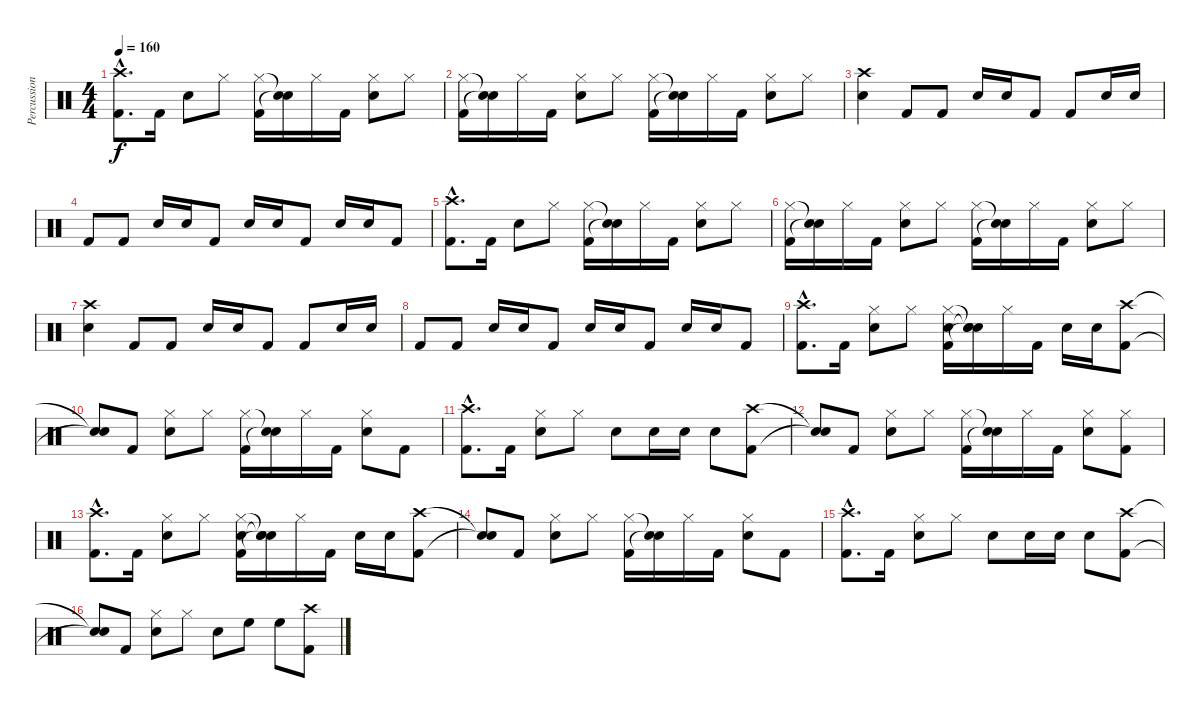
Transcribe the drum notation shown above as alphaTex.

\track ("Percussion" "Percussion") {instrument percussion}
\staff {score}
\articulation defaults
\ts (4 4)
\tempo 160
\clef neutral
\ks c
("Crash high (hit)"{hac} "Kick (hit) 2"{hac}).8{d dy f} "Kick (hit) 2".16 "Snare (hit) 2".8 "Hi-Hat (closed)".8 ("Hi-Hat (closed)" "Kick (hit) 2").16 ("Snare (hit)"{t} "Snare (hit)"{t}).16 "Hi-Hat (closed)".16 "Kick (hit) 2".16 ("Hi-Hat (closed)" "Snare (hit) 2").8 "Hi-Hat (closed)".8 |
("Hi-Hat (closed)" "Kick (hit) 2").16 ("Snare (hit)"{t} "Snare (hit)"{t}).16 "Hi-Hat (closed)".16 "Kick (hit) 2".16 ("Hi-Hat (closed)" "Snare (hit) 2").8 "Hi-Hat (closed)".8 ("Hi-Hat (closed)" "Kick (hit) 2").16 ("Snare (hit)"{t} "Snare (hit)"{t}).16 "Hi-Hat (closed)".16 "Kick (hit) 2".16 ("Hi-Hat (closed)" "Snare (hit) 2").8 "Hi-Hat (closed)".8 |
("Crash high (hit)" "Snare (hit) 2").4 "Kick (hit) 2".8 "Kick (hit) 2".8 "Snare (hit) 2".16 "Snare (hit) 2".16 "Kick (hit) 2".8 "Kick (hit) 2".8 "Snare (hit) 2".16 "Snare (hit) 2".16 |
"Kick (hit) 2".8 "Kick (hit) 2".8 "Snare (hit) 2".16 "Snare (hit) 2".16 "Kick (hit) 2".8 "Snare (hit) 2".16 "Snare (hit) 2".16 "Kick (hit) 2".8 "Snare (hit) 2".16 "Snare (hit) 2".16 "Kick (hit) 2".8 |
("Crash high (hit)"{hac} "Kick (hit) 2"{hac}).8{d} "Kick (hit) 2".16 "Snare (hit) 2".8 "Hi-Hat (closed)".8 ("Hi-Hat (closed)" "Kick (hit) 2").16 ("Snare (hit)"{t} "Snare (hit)"{t}).16 "Hi-Hat (closed)".16 "Kick (hit) 2".16 ("Hi-Hat (closed)" "Snare (hit) 2").8 "Hi-Hat (closed)".8 |
("Hi-Hat (closed)" "Kick (hit) 2").16 ("Snare (hit)"{t} "Snare (hit)"{t}).16 "Hi-Hat (closed)".16 "Kick (hit) 2".16 ("Hi-Hat (closed)" "Snare (hit) 2").8 "Hi-Hat (closed)".8 ("Hi-Hat (closed)" "Kick (hit) 2").16 ("Snare (hit)"{t} "Snare (hit)"{t}).16 "Hi-Hat (closed)".16 "Kick (hit) 2".16 ("Hi-Hat (closed)" "Snare (hit) 2").8 "Hi-Hat (closed)".8 |
("Crash high (hit)" "Snare (hit) 2").4 "Kick (hit) 2".8 "Kick (hit) 2".8 "Snare (hit) 2".16 "Snare (hit) 2".16 "Kick (hit) 2".8 "Kick (hit) 2".8 "Snare (hit) 2".16 "Snare (hit) 2".16 |
"Kick (hit) 2".8 "Kick (hit) 2".8 "Snare (hit) 2".16 "Snare (hit) 2".16 "Kick (hit) 2".8 "Snare (hit) 2".16 "Snare (hit) 2".16 "Kick (hit) 2".8 "Snare (hit) 2".16 "Snare (hit) 2".16 "Kick (hit) 2".8 |
("Crash high (hit)"{hac} "Kick (hit) 2"{hac}).8{d} "Kick (hit) 2".16 ("Hi-Hat (closed)" "Snare (hit) 2").8 "Hi-Hat (closed)".8 ("Hi-Hat (closed)" "Snare (hit) 2" "Kick (hit) 2").16 ("Snare (hit)"{t} "Snare (hit)"{t} "Snare (hit)"{t}).16 "Hi-Hat (closed)".16 "Kick (hit) 2".16 "Snare (hit) 2".16 "Snare (hit) 2".16 ("Crash high (hit)" "Kick (hit) 2").8 |
("Snare (hit)"{t} "Snare (hit)"{t}).8 "Kick (hit) 2".8 ("Hi-Hat (closed)" "Snare (hit) 2").8 "Hi-Hat (closed)".8 ("Hi-Hat (closed)" "Kick (hit) 2").16 ("Snare (hit)"{t} "Snare (hit)"{t}).16 "Hi-Hat (closed)".16 "Kick (hit) 2".16 ("Hi-Hat (closed)" "Snare (hit) 2").8 "Kick (hit) 2".8 |
("Crash high (hit)"{hac} "Kick (hit) 2"{hac}).8{d} "Kick (hit) 2".16 ("Hi-Hat (closed)" "Snare (hit) 2").8 "Hi-Hat (closed)".8 "Snare (hit) 2".8 "Snare (hit) 2".16 "Snare (hit) 2".16 "Snare (hit) 2".8 ("Crash high (hit)" "Kick (hit) 2").8 |
("Snare (hit)"{t} "Snare (hit)"{t}).8 "Kick (hit) 2".8 ("Hi-Hat (closed)" "Snare (hit) 2").8 "Hi-Hat (closed)".8 ("Hi-Hat (closed)" "Kick (hit) 2").16 ("Snare (hit)"{t} "Snare (hit)"{t}).16 "Hi-Hat (closed)".16 "Kick (hit) 2".16 ("Hi-Hat (closed)" "Snare (hit) 2").8 ("Hi-Hat (closed)" "Kick (hit) 2").8 |
("Crash high (hit)"{hac} "Kick (hit) 2"{hac}).8{d} "Kick (hit) 2".16 ("Hi-Hat (closed)" "Snare (hit) 2").8 "Hi-Hat (closed)".8 ("Hi-Hat (closed)" "Snare (hit) 2" "Kick (hit) 2").16 ("Snare (hit)"{t} "Snare (hit)"{t} "Snare (hit)"{t}).16 "Hi-Hat (closed)".16 "Kick (hit) 2".16 "Snare (hit) 2".16 "Snare (hit) 2".16 ("Crash high (hit)" "Kick (hit) 2").8 |
("Snare (hit)"{t} "Snare (hit)"{t}).8 "Kick (hit) 2".8 ("Hi-Hat (closed)" "Snare (hit) 2").8 "Hi-Hat (closed)".8 ("Hi-Hat (closed)" "Kick (hit) 2").16 ("Snare (hit)"{t} "Snare (hit)"{t}).16 "Hi-Hat (closed)".16 "Kick (hit) 2".16 ("Hi-Hat (closed)" "Snare (hit) 2").8 "Kick (hit) 2".8 |
("Crash high (hit)"{hac} "Kick (hit) 2"{hac}).8{d} "Kick (hit) 2".16 ("Hi-Hat (closed)" "Snare (hit) 2").8 "Hi-Hat (closed)".8 "Snare (hit) 2".8 "Snare (hit) 2".16 "Snare (hit) 2".16 "Snare (hit) 2".8 ("Crash high (hit)" "Kick (hit) 2").8 |
("Snare (hit)"{t} "Snare (hit)"{t}).8 "Kick (hit) 2".8 ("Hi-Hat (closed)" "Snare (hit) 2").8 "Hi-Hat (closed)".8 "Snare (hit) 2".8 "High Floor Tom (hit)".8 "High Floor Tom (hit)".8 ("Crash high (hit)" "Kick (hit) 2").8
